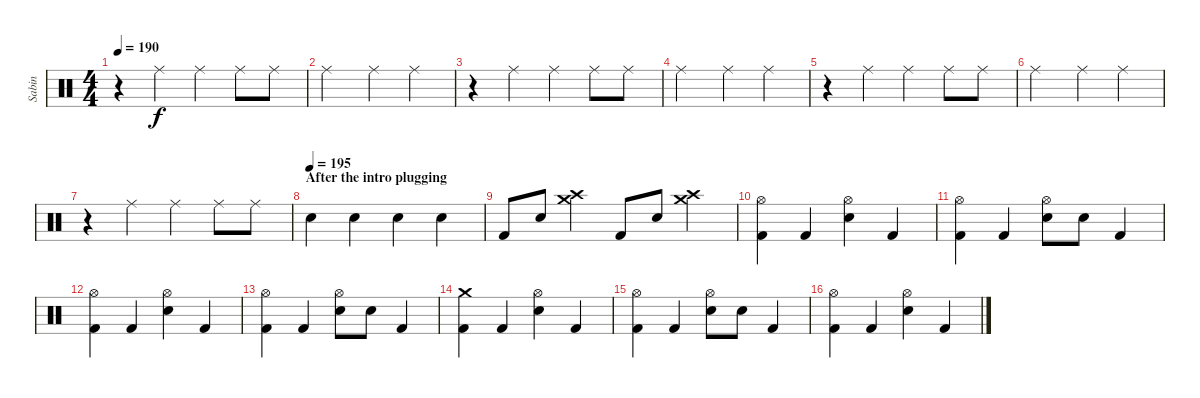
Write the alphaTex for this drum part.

\track ("Sabin" "Sabin") {instrument percussion}
\staff {score}
\articulation defaults
\ts (4 4)
\tempo 190
\clef neutral
\ks c
r.4{dy f} "Ride (middle)".4 "Ride (middle)".4 "Ride (middle)".8 "Ride (middle)".8 |
"Ride (middle)".2 "Ride (middle)".4 "Ride (middle)".4 |
r.4 "Ride (middle)".4 "Ride (middle)".4 "Ride (middle)".8 "Ride (middle)".8 |
"Ride (middle)".2 "Ride (middle)".4 "Ride (middle)".4 |
r.4 "Ride (middle)".4 "Ride (middle)".4 "Ride (middle)".8 "Ride (middle)".8 |
"Ride (middle)".2 "Ride (middle)".4 "Ride (middle)".4 |
r.4 "Ride (middle)".4 "Ride (middle)".4 "Ride (middle)".8 "Ride (middle)".8 |
\section ("" "After the intro plugging")
\tempo (195)
"Electric Snare (hit)".4 "Electric Snare (hit)".4 "Electric Snare (hit)".4 "Electric Snare (hit)".4 |
"Kick (hit) 2".8 "Electric Snare (hit)".8 ("Crash medium (hit)" "Crash high (hit)").4 "Kick (hit) 2".8 "Electric Snare (hit)".8 ("Crash medium (hit)" "Crash high (hit)").4 |
("Hi-Hat (open)" "Kick (hit) 2").4 "Kick (hit) 2".4 ("Electric Snare (hit)" "Hi-Hat (open)").4 "Kick (hit) 2".4 |
("Hi-Hat (open)" "Kick (hit) 2").4 "Kick (hit) 2".4 ("Electric Snare (hit)" "Hi-Hat (open)").8 "Electric Snare (hit)".8 "Kick (hit) 2".4 |
("Hi-Hat (open)" "Kick (hit) 2").4 "Kick (hit) 2".4 ("Electric Snare (hit)" "Hi-Hat (open)").4 "Kick (hit) 2".4 |
("Hi-Hat (open)" "Kick (hit) 2").4 "Kick (hit) 2".4 ("Electric Snare (hit)" "Hi-Hat (open)").8 "Electric Snare (hit)".8 "Kick (hit) 2".4 |
("Crash medium (hit)" "Kick (hit) 2").4 "Kick (hit) 2".4 ("Electric Snare (hit)" "Hi-Hat (open)").4 "Kick (hit) 2".4 |
("Hi-Hat (open)" "Kick (hit) 2").4 "Kick (hit) 2".4 ("Electric Snare (hit)" "Hi-Hat (open)").8 "Electric Snare (hit)".8 "Kick (hit) 2".4 |
("Hi-Hat (open)" "Kick (hit) 2").4 "Kick (hit) 2".4 ("Electric Snare (hit)" "Hi-Hat (open)").4 "Kick (hit) 2".4
